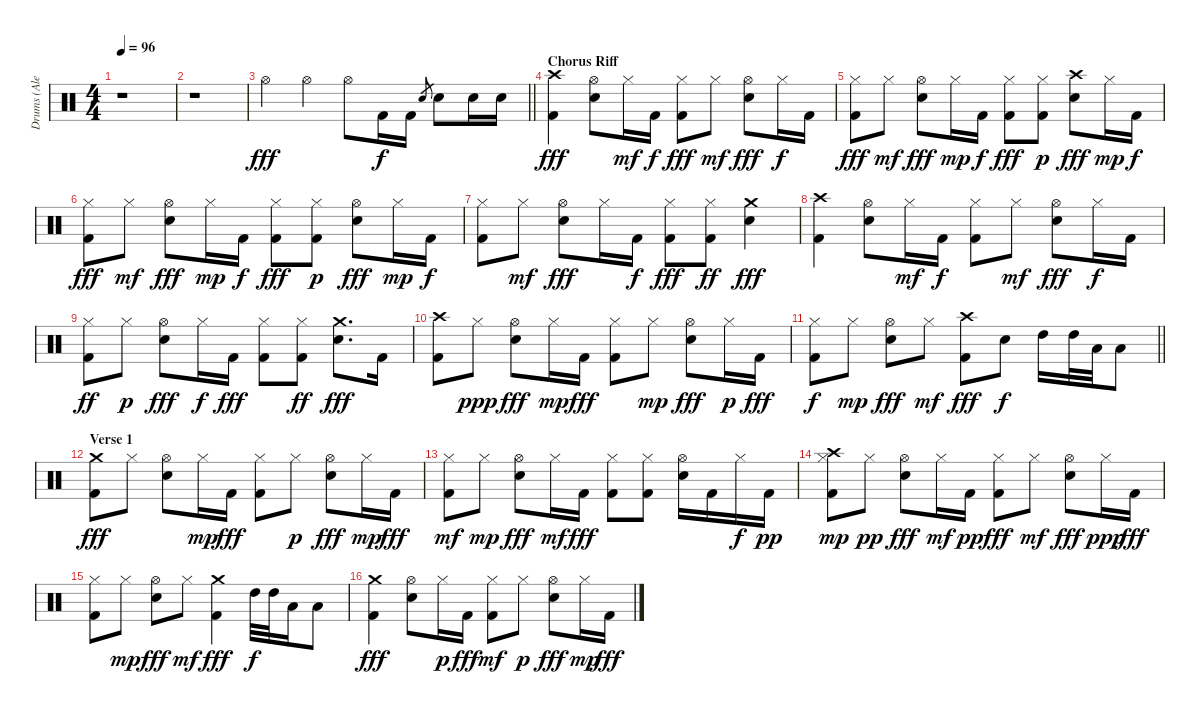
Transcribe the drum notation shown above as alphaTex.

\track ("Drums (Alex Van Halen)" "Drums (Ale") {instrument percussion}
\staff {score}
\articulation defaults
\ts (4 4)
\tempo 96
\clef neutral
\ks c
r.1{dy fff} |
r.1 |
\barLineRight lightlight "Hi-Hat (open)".4 "Hi-Hat (open)".4 "Hi-Hat (open)".8 "Kick (hit) 2".16{dy f} "Kick (hit) 2".16 "Snare (hit) 2".8{gr} "Snare (hit) 2".8 "Snare (hit) 2".16 "Snare (hit) 2".16
|
\section ("" "Chorus Riff")
("Crash high (hit)" "Kick (hit) 2").4{dy fff} ("Hi-Hat (open)" "Snare (hit) 2").8 "Hi-Hat (closed)".16{dy mf} "Kick (hit) 2".16{dy f} ("Hi-Hat (closed)" "Kick (hit) 2").8{dy fff} "Hi-Hat (closed)".8{dy mf} ("Hi-Hat (open)" "Snare (hit) 2").8{dy fff} "Hi-Hat (closed)".16{dy f} "Kick (hit) 2".16 |
("Hi-Hat (closed)" "Kick (hit) 2").8{dy fff} "Hi-Hat (closed)".8{dy mf} ("Hi-Hat (open)" "Snare (hit) 2").8{dy fff} "Hi-Hat (closed)".16{dy mp} "Kick (hit) 2".16{dy f} ("Hi-Hat (closed)" "Kick (hit) 2").8{dy fff} ("Hi-Hat (closed)" "Kick (hit) 2").8{dy p} ("Crash high (hit)" "Snare (hit) 2").8{dy fff} "Hi-Hat (closed)".16{dy mp} "Kick (hit) 2".16{dy f} |
("Hi-Hat (closed)" "Kick (hit) 2").8{dy fff} "Hi-Hat (closed)".8{dy mf} ("Hi-Hat (open)" "Snare (hit) 2").8{dy fff} "Hi-Hat (closed)".16{dy mp} "Kick (hit) 2".16{dy f} ("Hi-Hat (closed)" "Kick (hit) 2").8{dy fff} ("Hi-Hat (closed)" "Kick (hit) 2").8{dy p} ("Hi-Hat (open)" "Snare (hit) 2").8{dy fff} "Hi-Hat (closed)".16{dy mp} "Kick (hit) 2".16{dy f} |
("Hi-Hat (closed)" "Kick (hit) 2").8 "Hi-Hat (closed)".8{dy mf} ("Hi-Hat (open)" "Snare (hit) 2").8{dy fff} "Hi-Hat (closed)".16 "Kick (hit) 2".16{dy f} ("Hi-Hat (closed)" "Kick (hit) 2").8{dy fff} ("Hi-Hat (closed)" "Kick (hit) 2").8{dy ff} ("Crash medium (hit)" "Snare (hit) 2").4{dy fff} |
("Crash high (hit)" "Kick (hit) 2").4 ("Hi-Hat (open)" "Snare (hit) 2").8 "Hi-Hat (closed)".16{dy mf} "Kick (hit) 2".16{dy f} ("Hi-Hat (closed)" "Kick (hit) 2").8 "Hi-Hat (closed)".8{dy mf} ("Hi-Hat (open)" "Snare (hit) 2").8{dy fff} "Hi-Hat (closed)".16{dy f} "Kick (hit) 2".16 |
("Kick (hit) 2" "Hi-Hat (closed)").8{dy ff} "Hi-Hat (closed)".8{dy p} ("Hi-Hat (open)" "Snare (hit) 2").8{dy fff} "Hi-Hat (closed)".16{dy f} "Kick (hit) 2".16{dy fff} ("Hi-Hat (closed)" "Kick (hit) 2").8 ("Kick (hit) 2" "Hi-Hat (closed)").8{dy ff} ("Snare (hit) 2" "Crash medium (hit)").8{d dy fff} "Kick (hit) 2".16 |
("Kick (hit) 2" "Crash high (hit)").8 "Hi-Hat (closed)".8{dy ppp} ("Snare (hit) 2" "Hi-Hat (open)").8{dy fff} "Hi-Hat (closed)".16{dy mp} "Kick (hit) 2".16{dy fff} ("Kick (hit) 2" "Hi-Hat (closed)").8 "Hi-Hat (closed)".8{dy mp} ("Snare (hit) 2" "Hi-Hat (open)").8{dy fff} "Hi-Hat (closed)".16{dy p} "Kick (hit) 2".16{dy fff} |
\barLineRight lightlight
("Hi-Hat (closed)" "Kick (hit) 2").8{dy f} "Hi-Hat (closed)".8{dy mp} ("Hi-Hat (open)" "Snare (hit) 2").8{dy fff} "Hi-Hat (closed)".8{dy mf} ("Crash high (hit)" "Kick (hit) 2").8{dy fff} "Snare (hit) 2".8{dy f} "High Tom (hit)".16 "High Tom (hit)".32 "Low Tom (hit)".32 "Low Tom (hit)".8 |
\section ("" "Verse 1")
("Crash medium (hit)" "Kick (hit) 2").8{dy fff} "Hi-Hat (closed)".8 ("Hi-Hat (open)" "Snare (hit) 2").8 "Hi-Hat (closed)".16{dy mp} "Kick (hit) 2".16{dy fff} ("Hi-Hat (closed)" "Kick (hit) 2").8 "Hi-Hat (closed)".8{dy p} ("Snare (hit) 2" "Hi-Hat (open)").8{dy fff} "Hi-Hat (closed)".16{dy mp} "Kick (hit) 2".16{dy fff} |
("Kick (hit) 2" "Hi-Hat (closed)").8{dy mf} "Hi-Hat (closed)".8{dy mp} ("Snare (hit) 2" "Hi-Hat (open)").8{dy fff} "Hi-Hat (closed)".16{dy mf} "Kick (hit) 2".16{dy fff} ("Kick (hit) 2" "Hi-Hat (closed)").8 ("Hi-Hat (closed)" "Kick (hit) 2").8 ("Snare (hit) 2" "Hi-Hat (open)").16 "Kick (hit) 2".16 "Hi-Hat (closed)".16{dy f} "Kick (hit) 2".16{dy pp} |
("Crash high (hit)" "Kick (hit) 2" "Hi-Hat (closed)").8{dy mp} "Hi-Hat (closed)".8{dy pp} ("Hi-Hat (open)" "Snare (hit) 2").8{dy fff} "Hi-Hat (closed)".16{dy mf} "Kick (hit) 2".16{dy pp} ("Kick (hit) 2" "Hi-Hat (closed)").8{dy fff} "Hi-Hat (closed)".8{dy mf} ("Snare (hit) 2" "Hi-Hat (open)").8{dy fff} "Hi-Hat (closed)".16{dy ppp} "Kick (hit) 2".16{dy fff} |
("Hi-Hat (closed)" "Kick (hit) 2").8 "Hi-Hat (closed)".8{dy mp} ("Hi-Hat (open)" "Snare (hit) 2").8{dy fff} "Hi-Hat (closed)".8{dy mf} ("Crash medium (hit)" "Kick (hit) 2").4{dy fff} "High Tom (hit)".32{dy f} "High Tom (hit)".32 "Low Tom (hit)".16 "Low Tom (hit)".8 |
("Kick (hit) 2" "Crash medium (hit)").4{dy fff} ("Hi-Hat (open)" "Snare (hit) 2").8 "Hi-Hat (closed)".16{dy p} "Kick (hit) 2".16{dy fff} ("Kick (hit) 2" "Hi-Hat (closed)").8{dy mf} "Hi-Hat (closed)".8{dy p} ("Snare (hit) 2" "Hi-Hat (open)").8{dy fff} "Hi-Hat (closed)".16{dy mp} "Kick (hit) 2".16{dy fff}
